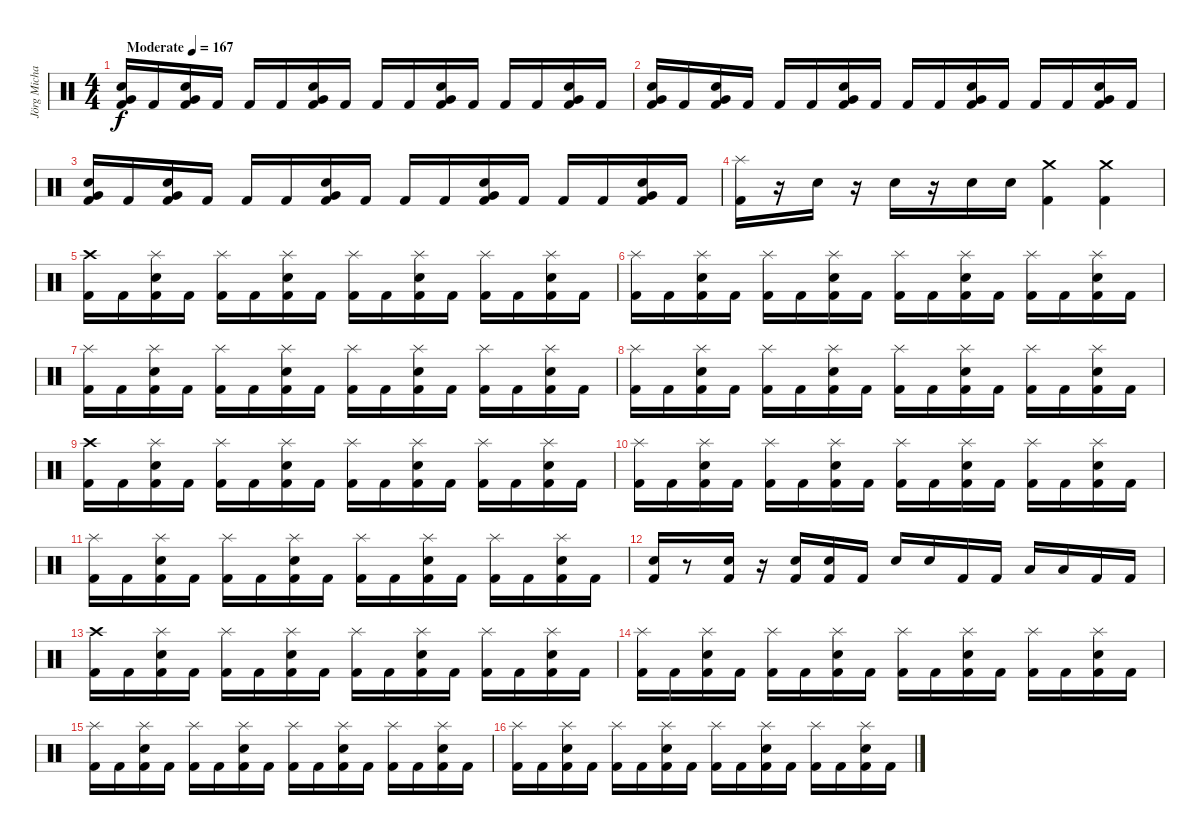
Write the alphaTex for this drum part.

\track ("Jörg Michael" "Jörg Micha") {instrument percussion}
\staff {score}
\articulation defaults
\ts (4 4)
\tempo (167 "Moderate")
\clef neutral
\ks c
("Snare (hit) 2" "Very Low Tom (hit)" "Kick (hit) 2").16{dy f} "Kick (hit) 2".16 ("Snare (hit) 2" "Very Low Tom (hit)" "Kick (hit) 2").16 "Kick (hit) 2".16 "Kick (hit) 2".16 "Kick (hit) 2".16 ("Snare (hit) 2" "Very Low Tom (hit)" "Kick (hit) 2").16 "Kick (hit) 2".16 "Kick (hit) 2".16 "Kick (hit) 2".16 ("Snare (hit) 2" "Very Low Tom (hit)" "Kick (hit) 2").16 "Kick (hit) 2".16 "Kick (hit) 2".16 "Kick (hit) 2".16 ("Snare (hit) 2" "Very Low Tom (hit)" "Kick (hit) 2").16 "Kick (hit) 2".16 |
("Snare (hit) 2" "Very Low Tom (hit)" "Kick (hit) 2").16 "Kick (hit) 2".16 ("Snare (hit) 2" "Very Low Tom (hit)" "Kick (hit) 2").16 "Kick (hit) 2".16 "Kick (hit) 2".16 "Kick (hit) 2".16 ("Snare (hit) 2" "Very Low Tom (hit)" "Kick (hit) 2").16 "Kick (hit) 2".16 "Kick (hit) 2".16 "Kick (hit) 2".16 ("Snare (hit) 2" "Very Low Tom (hit)" "Kick (hit) 2").16 "Kick (hit) 2".16 "Kick (hit) 2".16 "Kick (hit) 2".16 ("Snare (hit) 2" "Very Low Tom (hit)" "Kick (hit) 2").16 "Kick (hit) 2".16 |
("Snare (hit) 2" "Very Low Tom (hit)" "Kick (hit) 2").16 "Kick (hit) 2".16 ("Snare (hit) 2" "Very Low Tom (hit)" "Kick (hit) 2").16 "Kick (hit) 2".16 "Kick (hit) 2".16 "Kick (hit) 2".16 ("Snare (hit) 2" "Very Low Tom (hit)" "Kick (hit) 2").16 "Kick (hit) 2".16 "Kick (hit) 2".16 "Kick (hit) 2".16 ("Snare (hit) 2" "Very Low Tom (hit)" "Kick (hit) 2").16 "Kick (hit) 2".16 "Kick (hit) 2".16 "Kick (hit) 2".16 ("Snare (hit) 2" "Very Low Tom (hit)" "Kick (hit) 2").16 "Kick (hit) 2".16 |
("Splash (hit)" "Kick (hit) 2").16 r.16 "Snare (hit) 2".16 r.16 "Snare (hit) 2".16 r.16 "Snare (hit) 2".16 "Snare (hit) 2".16 ("Crash medium (hit)" "Kick (hit) 2").4 ("Crash medium (hit)" "Kick (hit) 2").4 |
("Crash high (hit)" "Kick (hit) 2").16 "Kick (hit) 2".16 ("Splash (hit)" "Snare (hit) 2" "Kick (hit) 2").16 "Kick (hit) 2".16 ("Splash (hit)" "Kick (hit) 2").16 "Kick (hit) 2".16 ("Splash (hit)" "Snare (hit) 2" "Kick (hit) 2").16 "Kick (hit) 2".16 ("Splash (hit)" "Kick (hit) 2").16 "Kick (hit) 2".16 ("Splash (hit)" "Snare (hit) 2" "Kick (hit) 2").16 "Kick (hit) 2".16 ("Splash (hit)" "Kick (hit) 2").16 "Kick (hit) 2".16 ("Splash (hit)" "Snare (hit) 2" "Kick (hit) 2").16 "Kick (hit) 2".16 |
("Splash (hit)" "Kick (hit) 2").16 "Kick (hit) 2".16 ("Splash (hit)" "Snare (hit) 2" "Kick (hit) 2").16 "Kick (hit) 2".16 ("Splash (hit)" "Kick (hit) 2").16 "Kick (hit) 2".16 ("Splash (hit)" "Snare (hit) 2" "Kick (hit) 2").16 "Kick (hit) 2".16 ("Splash (hit)" "Kick (hit) 2").16 "Kick (hit) 2".16 ("Splash (hit)" "Snare (hit) 2" "Kick (hit) 2").16 "Kick (hit) 2".16 ("Splash (hit)" "Kick (hit) 2").16 "Kick (hit) 2".16 ("Splash (hit)" "Snare (hit) 2" "Kick (hit) 2").16 "Kick (hit) 2".16 |
("Splash (hit)" "Kick (hit) 2").16 "Kick (hit) 2".16 ("Splash (hit)" "Snare (hit) 2" "Kick (hit) 2").16 "Kick (hit) 2".16 ("Splash (hit)" "Kick (hit) 2").16 "Kick (hit) 2".16 ("Splash (hit)" "Snare (hit) 2" "Kick (hit) 2").16 "Kick (hit) 2".16 ("Splash (hit)" "Kick (hit) 2").16 "Kick (hit) 2".16 ("Splash (hit)" "Snare (hit) 2" "Kick (hit) 2").16 "Kick (hit) 2".16 ("Splash (hit)" "Kick (hit) 2").16 "Kick (hit) 2".16 ("Splash (hit)" "Snare (hit) 2" "Kick (hit) 2").16 "Kick (hit) 2".16 |
("Splash (hit)" "Kick (hit) 2").16 "Kick (hit) 2".16 ("Splash (hit)" "Snare (hit) 2" "Kick (hit) 2").16 "Kick (hit) 2".16 ("Splash (hit)" "Kick (hit) 2").16 "Kick (hit) 2".16 ("Splash (hit)" "Snare (hit) 2" "Kick (hit) 2").16 "Kick (hit) 2".16 ("Splash (hit)" "Kick (hit) 2").16 "Kick (hit) 2".16 ("Splash (hit)" "Snare (hit) 2" "Kick (hit) 2").16 "Kick (hit) 2".16 ("Splash (hit)" "Kick (hit) 2").16 "Kick (hit) 2".16 ("Splash (hit)" "Snare (hit) 2" "Kick (hit) 2").16 "Kick (hit) 2".16 |
("Crash high (hit)" "Kick (hit) 2").16 "Kick (hit) 2".16 ("Splash (hit)" "Snare (hit) 2" "Kick (hit) 2").16 "Kick (hit) 2".16 ("Splash (hit)" "Kick (hit) 2").16 "Kick (hit) 2".16 ("Splash (hit)" "Snare (hit) 2" "Kick (hit) 2").16 "Kick (hit) 2".16 ("Splash (hit)" "Kick (hit) 2").16 "Kick (hit) 2".16 ("Splash (hit)" "Snare (hit) 2" "Kick (hit) 2").16 "Kick (hit) 2".16 ("Splash (hit)" "Kick (hit) 2").16 "Kick (hit) 2".16 ("Splash (hit)" "Snare (hit) 2" "Kick (hit) 2").16 "Kick (hit) 2".16 |
("Splash (hit)" "Kick (hit) 2").16 "Kick (hit) 2".16 ("Splash (hit)" "Snare (hit) 2" "Kick (hit) 2").16 "Kick (hit) 2".16 ("Splash (hit)" "Kick (hit) 2").16 "Kick (hit) 2".16 ("Splash (hit)" "Snare (hit) 2" "Kick (hit) 2").16 "Kick (hit) 2".16 ("Splash (hit)" "Kick (hit) 2").16 "Kick (hit) 2".16 ("Splash (hit)" "Snare (hit) 2" "Kick (hit) 2").16 "Kick (hit) 2".16 ("Splash (hit)" "Kick (hit) 2").16 "Kick (hit) 2".16 ("Splash (hit)" "Snare (hit) 2" "Kick (hit) 2").16 "Kick (hit) 2".16 |
("Splash (hit)" "Kick (hit) 2").16 "Kick (hit) 2".16 ("Splash (hit)" "Snare (hit) 2" "Kick (hit) 2").16 "Kick (hit) 2".16 ("Splash (hit)" "Kick (hit) 2").16 "Kick (hit) 2".16 ("Splash (hit)" "Snare (hit) 2" "Kick (hit) 2").16 "Kick (hit) 2".16 ("Splash (hit)" "Kick (hit) 2").16 "Kick (hit) 2".16 ("Splash (hit)" "Snare (hit) 2" "Kick (hit) 2").16 "Kick (hit) 2".16 ("Splash (hit)" "Kick (hit) 2").16 "Kick (hit) 2".16 ("Splash (hit)" "Snare (hit) 2" "Kick (hit) 2").16 "Kick (hit) 2".16 |
("Snare (hit) 2" "Kick (hit) 2").16 r.8 ("Snare (hit) 2" "Kick (hit) 2").16 r.16 ("Snare (hit) 2" "Kick (hit) 2").16 ("Snare (hit) 2" "Kick (hit) 2").16 "Kick (hit) 2".16 "Snare (hit) 2".16 "Snare (hit) 2".16 "Kick (hit) 2".16 "Kick (hit) 2".16 "Low Tom (hit)".16 "Low Tom (hit)".16 "Kick (hit) 2".16 "Kick (hit) 2".16 |
("Crash high (hit)" "Kick (hit) 2").16 "Kick (hit) 2".16 ("Splash (hit)" "Snare (hit) 2" "Kick (hit) 2").16 "Kick (hit) 2".16 ("Splash (hit)" "Kick (hit) 2").16 "Kick (hit) 2".16 ("Splash (hit)" "Snare (hit) 2" "Kick (hit) 2").16 "Kick (hit) 2".16 ("Splash (hit)" "Kick (hit) 2").16 "Kick (hit) 2".16 ("Splash (hit)" "Snare (hit) 2" "Kick (hit) 2").16 "Kick (hit) 2".16 ("Splash (hit)" "Kick (hit) 2").16 "Kick (hit) 2".16 ("Splash (hit)" "Snare (hit) 2" "Kick (hit) 2").16 "Kick (hit) 2".16 |
("Splash (hit)" "Kick (hit) 2").16 "Kick (hit) 2".16 ("Splash (hit)" "Snare (hit) 2" "Kick (hit) 2").16 "Kick (hit) 2".16 ("Splash (hit)" "Kick (hit) 2").16 "Kick (hit) 2".16 ("Splash (hit)" "Snare (hit) 2" "Kick (hit) 2").16 "Kick (hit) 2".16 ("Splash (hit)" "Kick (hit) 2").16 "Kick (hit) 2".16 ("Splash (hit)" "Snare (hit) 2" "Kick (hit) 2").16 "Kick (hit) 2".16 ("Splash (hit)" "Kick (hit) 2").16 "Kick (hit) 2".16 ("Splash (hit)" "Snare (hit) 2" "Kick (hit) 2").16 "Kick (hit) 2".16 |
("Splash (hit)" "Kick (hit) 2").16 "Kick (hit) 2".16 ("Splash (hit)" "Snare (hit) 2" "Kick (hit) 2").16 "Kick (hit) 2".16 ("Splash (hit)" "Kick (hit) 2").16 "Kick (hit) 2".16 ("Splash (hit)" "Snare (hit) 2" "Kick (hit) 2").16 "Kick (hit) 2".16 ("Splash (hit)" "Kick (hit) 2").16 "Kick (hit) 2".16 ("Splash (hit)" "Snare (hit) 2" "Kick (hit) 2").16 "Kick (hit) 2".16 ("Splash (hit)" "Kick (hit) 2").16 "Kick (hit) 2".16 ("Splash (hit)" "Snare (hit) 2" "Kick (hit) 2").16 "Kick (hit) 2".16 |
("Splash (hit)" "Kick (hit) 2").16 "Kick (hit) 2".16 ("Splash (hit)" "Snare (hit) 2" "Kick (hit) 2").16 "Kick (hit) 2".16 ("Splash (hit)" "Kick (hit) 2").16 "Kick (hit) 2".16 ("Splash (hit)" "Snare (hit) 2" "Kick (hit) 2").16 "Kick (hit) 2".16 ("Splash (hit)" "Kick (hit) 2").16 "Kick (hit) 2".16 ("Splash (hit)" "Snare (hit) 2" "Kick (hit) 2").16 "Kick (hit) 2".16 ("Splash (hit)" "Kick (hit) 2").16 "Kick (hit) 2".16 ("Splash (hit)" "Snare (hit) 2" "Kick (hit) 2").16 "Kick (hit) 2".16
